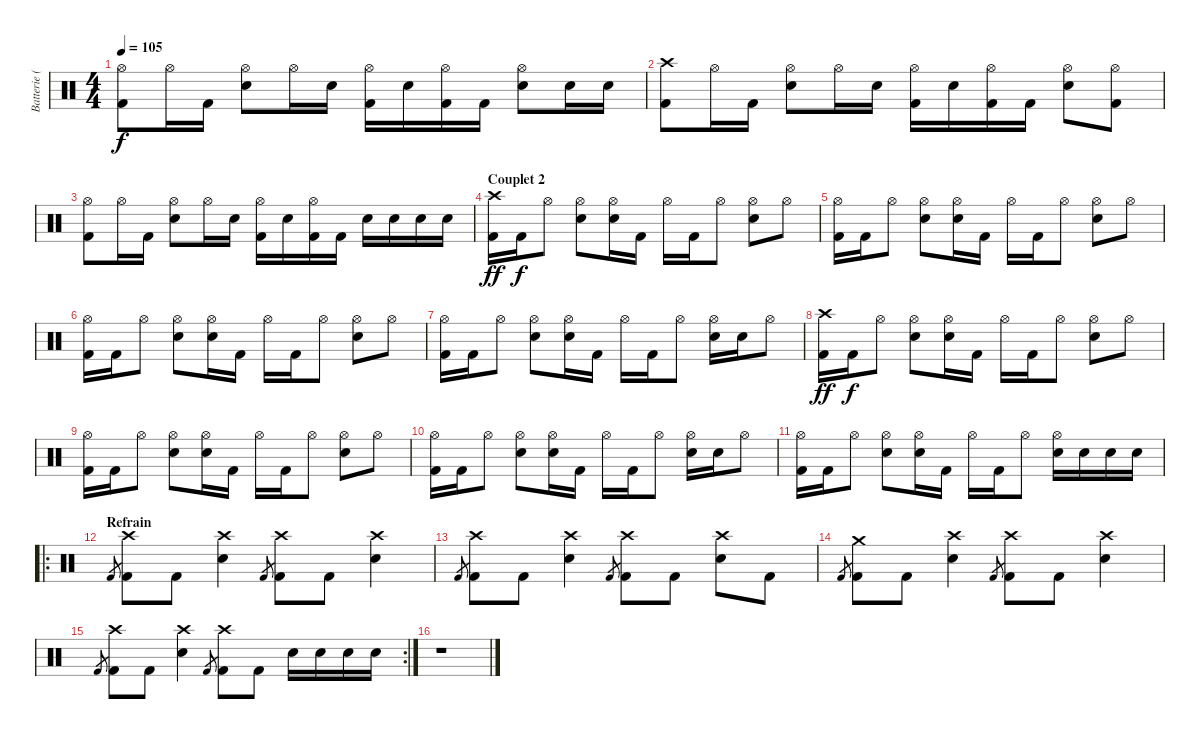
\track ("Batterie (Preston Nash)" "Batterie (") {instrument percussion}
\staff {score}
\articulation defaults
\ts (4 4)
\tempo 105
\clef neutral
\ks c
("Hi-Hat (open)" "Kick (hit) 2").8{dy f} "Hi-Hat (open)".16 "Kick (hit) 2".16 ("Hi-Hat (open)" "Electric Snare (hit)").8 "Hi-Hat (open)".16 "Electric Snare (hit)".16 ("Hi-Hat (open)" "Kick (hit) 2").16 "Electric Snare (hit)".16 ("Hi-Hat (open)" "Kick (hit) 2").16 "Kick (hit) 2".16 ("Hi-Hat (open)" "Electric Snare (hit)").8 "Electric Snare (hit)".16 "Electric Snare (hit)".16 |
("Crash high (hit)" "Kick (hit) 2").8 "Hi-Hat (open)".16 "Kick (hit) 2".16 ("Hi-Hat (open)" "Electric Snare (hit)").8 "Hi-Hat (open)".16 "Electric Snare (hit)".16 ("Hi-Hat (open)" "Kick (hit) 2").16 "Electric Snare (hit)".16 ("Hi-Hat (open)" "Kick (hit) 2").16 "Kick (hit) 2".16 ("Hi-Hat (open)" "Electric Snare (hit)").8 ("Hi-Hat (open)" "Kick (hit) 2").8 |
("Hi-Hat (open)" "Kick (hit) 2").8 "Hi-Hat (open)".16 "Kick (hit) 2".16 ("Hi-Hat (open)" "Electric Snare (hit)").8 "Hi-Hat (open)".16 "Electric Snare (hit)".16 ("Hi-Hat (open)" "Kick (hit) 2").16 "Electric Snare (hit)".16 ("Hi-Hat (open)" "Kick (hit) 2").16 "Kick (hit) 2".16 "Electric Snare (hit)".16 "Electric Snare (hit)".16 "Electric Snare (hit)".16 "Electric Snare (hit)".16 |
\section ("" "Couplet 2")
("Crash high (hit)" "Kick (hit) 2").16{dy ff} "Kick (hit) 2".16{dy f} "Hi-Hat (open)".8 ("Hi-Hat (open)" "Electric Snare (hit)").8 ("Hi-Hat (open)" "Electric Snare (hit)").16 "Kick (hit) 2".16 "Hi-Hat (open)".16 "Kick (hit) 2".16 "Hi-Hat (open)".8 ("Hi-Hat (open)" "Electric Snare (hit)").8 "Hi-Hat (open)".8 |
("Hi-Hat (open)" "Kick (hit) 2").16 "Kick (hit) 2".16 "Hi-Hat (open)".8 ("Hi-Hat (open)" "Electric Snare (hit)").8 ("Hi-Hat (open)" "Electric Snare (hit)").16 "Kick (hit) 2".16 "Hi-Hat (open)".16 "Kick (hit) 2".16 "Hi-Hat (open)".8 ("Hi-Hat (open)" "Electric Snare (hit)").8 "Hi-Hat (open)".8 |
("Hi-Hat (open)" "Kick (hit) 2").16 "Kick (hit) 2".16 "Hi-Hat (open)".8 ("Hi-Hat (open)" "Electric Snare (hit)").8 ("Hi-Hat (open)" "Electric Snare (hit)").16 "Kick (hit) 2".16 "Hi-Hat (open)".16 "Kick (hit) 2".16 "Hi-Hat (open)".8 ("Hi-Hat (open)" "Electric Snare (hit)").8 "Hi-Hat (open)".8 |
("Hi-Hat (open)" "Kick (hit) 2").16 "Kick (hit) 2".16 "Hi-Hat (open)".8 ("Hi-Hat (open)" "Electric Snare (hit)").8 ("Hi-Hat (open)" "Electric Snare (hit)").16 "Kick (hit) 2".16 "Hi-Hat (open)".16 "Kick (hit) 2".16 "Hi-Hat (open)".8 ("Hi-Hat (open)" "Electric Snare (hit)").16 "Electric Snare (hit)".16 "Hi-Hat (open)".8 |
("Crash high (hit)" "Kick (hit) 2").16{dy ff} "Kick (hit) 2".16{dy f} "Hi-Hat (open)".8 ("Hi-Hat (open)" "Electric Snare (hit)").8 ("Hi-Hat (open)" "Electric Snare (hit)").16 "Kick (hit) 2".16 "Hi-Hat (open)".16 "Kick (hit) 2".16 "Hi-Hat (open)".8 ("Hi-Hat (open)" "Electric Snare (hit)").8 "Hi-Hat (open)".8 |
("Hi-Hat (open)" "Kick (hit) 2").16 "Kick (hit) 2".16 "Hi-Hat (open)".8 ("Hi-Hat (open)" "Electric Snare (hit)").8 ("Hi-Hat (open)" "Electric Snare (hit)").16 "Kick (hit) 2".16 "Hi-Hat (open)".16 "Kick (hit) 2".16 "Hi-Hat (open)".8 ("Hi-Hat (open)" "Electric Snare (hit)").8 "Hi-Hat (open)".8 |
("Hi-Hat (open)" "Kick (hit) 2").16 "Kick (hit) 2".16 "Hi-Hat (open)".8 ("Hi-Hat (open)" "Electric Snare (hit)").8 ("Hi-Hat (open)" "Electric Snare (hit)").16 "Kick (hit) 2".16 "Hi-Hat (open)".16 "Kick (hit) 2".16 "Hi-Hat (open)".8 ("Hi-Hat (open)" "Electric Snare (hit)").16 "Electric Snare (hit)".16 "Hi-Hat (open)".8 |
("Hi-Hat (open)" "Kick (hit) 2").16 "Kick (hit) 2".16 "Hi-Hat (open)".8 ("Hi-Hat (open)" "Electric Snare (hit)").8 ("Hi-Hat (open)" "Electric Snare (hit)").16 "Kick (hit) 2".16 "Hi-Hat (open)".16 "Kick (hit) 2".16 "Hi-Hat (open)".8 ("Hi-Hat (open)" "Electric Snare (hit)").16 "Electric Snare (hit)".16 "Electric Snare (hit)".16 "Electric Snare (hit)".16 |
\ro
\section ("" "Refrain")
"Kick (hit) 2".8{gr} ("Crash high (hit)" "Kick (hit) 2").8 "Kick (hit) 2".8 ("Crash high (hit)" "Electric Snare (hit)").4 "Kick (hit) 2".8{gr} ("Crash high (hit)" "Kick (hit) 2").8 "Kick (hit) 2".8 ("Crash high (hit)" "Electric Snare (hit)").4 |
"Kick (hit) 2".8{gr} ("Crash high (hit)" "Kick (hit) 2").8 "Kick (hit) 2".8 ("Crash high (hit)" "Electric Snare (hit)").4 "Kick (hit) 2".8{gr} ("Crash high (hit)" "Kick (hit) 2").8 "Kick (hit) 2".8 ("Crash high (hit)" "Electric Snare (hit)").8 "Kick (hit) 2".8 |
"Kick (hit) 2".8{gr} ("Crash medium (hit)" "Kick (hit) 2").8 "Kick (hit) 2".8 ("Crash high (hit)" "Electric Snare (hit)").4 "Kick (hit) 2".8{gr} ("Crash high (hit)" "Kick (hit) 2").8 "Kick (hit) 2".8 ("Crash high (hit)" "Electric Snare (hit)").4 |
\rc 2 "Kick (hit) 2".8{gr}
("Crash high (hit)" "Kick (hit) 2").8 "Kick (hit) 2".8 ("Crash high (hit)" "Electric Snare (hit)").4 "Kick (hit) 2".8{gr} ("Crash high (hit)" "Kick (hit) 2").8 "Kick (hit) 2".8 "Electric Snare (hit)".16 "Electric Snare (hit)".16 "Electric Snare (hit)".16 "Electric Snare (hit)".16 |
r.1
